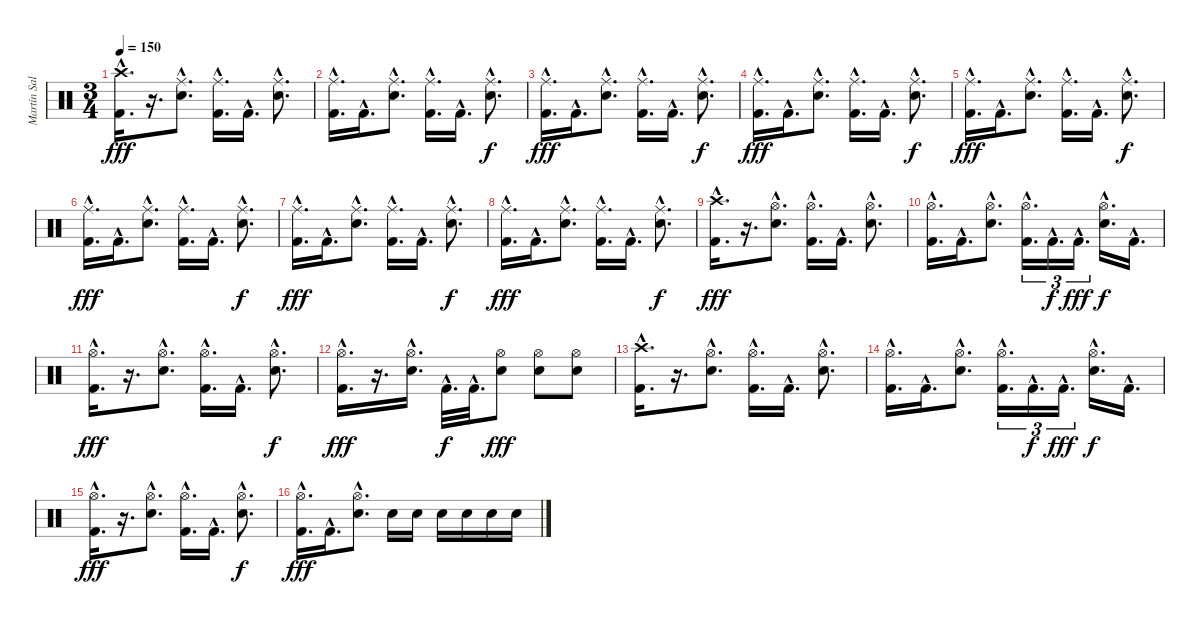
\track ("Martín Salariato" "Martín Sal") {instrument percussion}
\staff {score}
\articulation defaults
\ts (3 4)
\tempo 150
\clef neutral
\ks c
("Crash high (hit)"{hac} "Kick (hit) 2"{hac}).16{d dy fff} r.16{d} ("Ride (middle)"{hac} "Snare (hit) 2"{hac}).8{d} ("Ride (middle)"{hac} "Kick (hit) 2"{hac}).16{d} "Kick (hit) 2"{hac}.16{d} ("Ride (middle)"{hac} "Snare (hit) 2"{hac}).8{d} |
("Ride (middle)"{hac} "Kick (hit) 2"{hac}).16{d} "Kick (hit) 2"{hac}.16{d} ("Ride (middle)"{hac} "Snare (hit) 2"{hac}).8{d} ("Ride (middle)"{hac} "Kick (hit) 2"{hac}).16{d} "Kick (hit) 2"{hac}.16{d} ("Ride (middle)"{hac} "Snare (hit) 2"{hac}).8{d dy f} |
("Ride (middle)"{hac} "Kick (hit) 2"{hac}).16{d dy fff} "Kick (hit) 2"{hac}.16{d} ("Ride (middle)"{hac} "Snare (hit) 2"{hac}).8{d} ("Ride (middle)"{hac} "Kick (hit) 2"{hac}).16{d} "Kick (hit) 2"{hac}.16{d} ("Ride (middle)"{hac} "Snare (hit) 2"{hac}).8{d dy f} |
("Ride (middle)"{hac} "Kick (hit) 2"{hac}).16{d dy fff} "Kick (hit) 2"{hac}.16{d} ("Ride (middle)"{hac} "Snare (hit) 2"{hac}).8{d} ("Ride (middle)"{hac} "Kick (hit) 2"{hac}).16{d} "Kick (hit) 2"{hac}.16{d} ("Ride (middle)"{hac} "Snare (hit) 2"{hac}).8{d dy f} |
("Ride (middle)"{hac} "Kick (hit) 2"{hac}).16{d dy fff} "Kick (hit) 2"{hac}.16{d} ("Ride (middle)"{hac} "Snare (hit) 2"{hac}).8{d} ("Ride (middle)"{hac} "Kick (hit) 2"{hac}).16{d} "Kick (hit) 2"{hac}.16{d} ("Ride (middle)"{hac} "Snare (hit) 2"{hac}).8{d dy f} |
("Ride (middle)"{hac} "Kick (hit) 2"{hac}).16{d dy fff} "Kick (hit) 2"{hac}.16{d} ("Ride (middle)"{hac} "Snare (hit) 2"{hac}).8{d} ("Ride (middle)"{hac} "Kick (hit) 2"{hac}).16{d} "Kick (hit) 2"{hac}.16{d} ("Ride (middle)"{hac} "Snare (hit) 2"{hac}).8{d dy f} |
("Ride (middle)"{hac} "Kick (hit) 2"{hac}).16{d dy fff} "Kick (hit) 2"{hac}.16{d} ("Ride (middle)"{hac} "Snare (hit) 2"{hac}).8{d} ("Ride (middle)"{hac} "Kick (hit) 2"{hac}).16{d} "Kick (hit) 2"{hac}.16{d} ("Ride (middle)"{hac} "Snare (hit) 2"{hac}).8{d dy f} |
("Ride (middle)"{hac} "Kick (hit) 2"{hac}).16{d dy fff} "Kick (hit) 2"{hac}.16{d} ("Ride (middle)"{hac} "Snare (hit) 2"{hac}).8{d} ("Ride (middle)"{hac} "Kick (hit) 2"{hac}).16{d} "Kick (hit) 2"{hac}.16{d} ("Ride (middle)"{hac} "Snare (hit) 2"{hac}).8{d dy f} |
("Crash high (hit)"{hac} "Kick (hit) 2"{hac}).16{d dy fff} r.16{d} ("Hi-Hat (open)"{hac} "Snare (hit) 2"{hac}).8{d} ("Hi-Hat (open)"{hac} "Kick (hit) 2"{hac}).16{d} "Kick (hit) 2"{hac}.16{d} ("Hi-Hat (open)"{hac} "Snare (hit) 2"{hac}).8{d} |
("Hi-Hat (open)"{hac} "Kick (hit) 2"{hac}).16{d} "Kick (hit) 2"{hac}.16{d} ("Hi-Hat (open)"{hac} "Snare (hit) 2"{hac}).8{d} ("Hi-Hat (open)"{hac} "Kick (hit) 2"{hac}).16{d tu (3 2)} "Kick (hit) 2"{hac}.16{d tu (3 2) dy f} "Kick (hit) 2"{hac}.16{d tu (3 2) dy fff} ("Hi-Hat (open)"{hac} "Snare (hit) 2"{hac}).16{d dy f} "Kick (hit) 2"{hac}.16{d} |
("Hi-Hat (open)"{hac} "Kick (hit) 2"{hac}).16{d dy fff} r.16{d} ("Hi-Hat (open)"{hac} "Snare (hit) 2"{hac}).8{d} ("Hi-Hat (open)"{hac} "Kick (hit) 2"{hac}).16{d} "Kick (hit) 2"{hac}.16{d} ("Hi-Hat (open)"{hac} "Snare (hit) 2"{hac}).8{d dy f} |
("Hi-Hat (open)"{hac} "Kick (hit) 2"{hac}).16{d dy fff} r.16{d} ("Hi-Hat (open)"{hac} "Snare (hit) 2"{hac}).16{d} "Kick (hit) 2"{hac}.32{d dy f} "Kick (hit) 2"{hac}.32{d} ("Hi-Hat (open)" "Snare (hit) 2").8{dy fff} ("Hi-Hat (open)" "Snare (hit) 2").8 ("Hi-Hat (open)" "Snare (hit) 2").8 |
("Crash high (hit)"{hac} "Kick (hit) 2"{hac}).16{d} r.16{d} ("Hi-Hat (open)"{hac} "Snare (hit) 2"{hac}).8{d} ("Hi-Hat (open)"{hac} "Kick (hit) 2"{hac}).16{d} "Kick (hit) 2"{hac}.16{d} ("Hi-Hat (open)"{hac} "Snare (hit) 2"{hac}).8{d} |
("Hi-Hat (open)"{hac} "Kick (hit) 2"{hac}).16{d} "Kick (hit) 2"{hac}.16{d} ("Hi-Hat (open)"{hac} "Snare (hit) 2"{hac}).8{d} ("Hi-Hat (open)"{hac} "Kick (hit) 2"{hac}).16{d tu (3 2)} "Kick (hit) 2"{hac}.16{d tu (3 2) dy f} "Kick (hit) 2"{hac}.16{d tu (3 2) dy fff} ("Hi-Hat (open)"{hac} "Snare (hit) 2"{hac}).16{d dy f} "Kick (hit) 2"{hac}.16{d} |
("Hi-Hat (open)"{hac} "Kick (hit) 2"{hac}).16{d dy fff} r.16{d} ("Hi-Hat (open)"{hac} "Snare (hit) 2"{hac}).8{d} ("Hi-Hat (open)"{hac} "Kick (hit) 2"{hac}).16{d} "Kick (hit) 2"{hac}.16{d} ("Hi-Hat (open)"{hac} "Snare (hit) 2"{hac}).8{d dy f} |
("Hi-Hat (open)"{hac} "Kick (hit) 2"{hac}).16{d dy fff} "Kick (hit) 2"{hac}.16{d} ("Hi-Hat (open)"{hac} "Snare (hit) 2"{hac}).8{d} "Snare (hit) 2".16 "Snare (hit) 2".16 "Snare (hit) 2".16 "Snare (hit) 2".16 "Snare (hit) 2".16 "Snare (hit) 2".16
